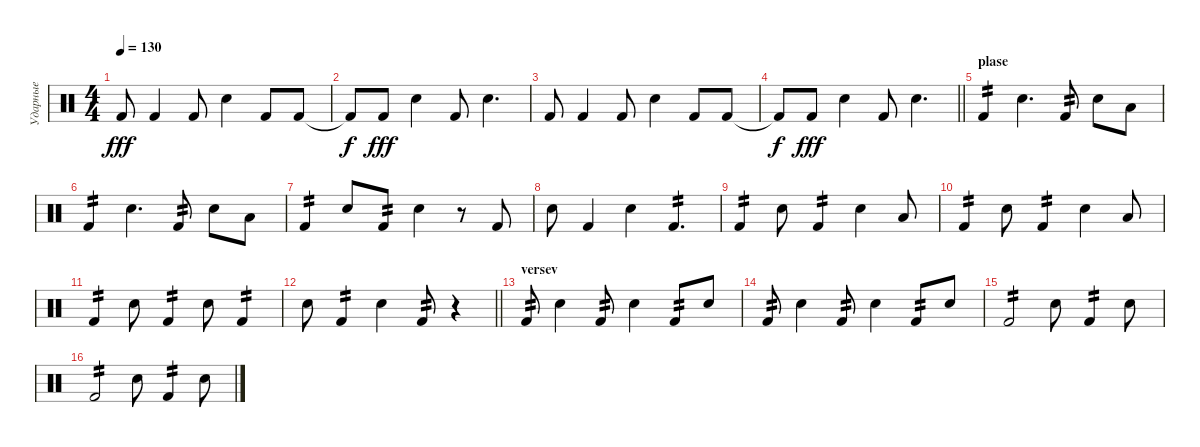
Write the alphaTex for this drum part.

\track ("Ударные" "Ударные") {instrument percussion}
\staff {score}
\articulation defaults
\ts (4 4)
\tempo 130
\clef neutral
\ks c "Kick (hit) 2".8{dy fff} "Kick (hit) 2".4 "Kick (hit) 2".8 "Snare (hit) 2".4 "Kick (hit) 2".8 "Kick (hit) 2".8
|
"Kick (hit) 2"{t}.8{dy f} "Kick (hit) 2".8{dy fff} "Snare (hit) 2".4 "Kick (hit) 2".8 "Snare (hit) 2".4{d} |
"Kick (hit) 2".8 "Kick (hit) 2".4 "Kick (hit) 2".8 "Snare (hit) 2".4 "Kick (hit) 2".8 "Kick (hit) 2".8 |
\barLineRight lightlight "Kick (hit) 2"{t}.8{dy f} "Kick (hit) 2".8{dy fff} "Snare (hit) 2".4 "Kick (hit) 2".8 "Snare (hit) 2".4{d}
|
\section ("" "plase")
"Kick (hit) 2".4{tp 2} "Snare (hit) 2".4{d} "Kick (hit) 2".8{tp 2} "Snare (hit) 2".8 "Low Floor Tom (hit)".8 |
"Kick (hit) 2".4{tp 2} "Snare (hit) 2".4{d} "Kick (hit) 2".8{tp 2} "Snare (hit) 2".8 "Low Tom (hit)".8 |
"Kick (hit) 2".4{tp 2} "Snare (hit) 2".8 "Kick (hit) 2".8{tp 2} "Snare (hit) 2".4 r.8 "Kick (hit) 2".8 |
"Snare (hit) 2".8 "Kick (hit) 2".4 "Snare (hit) 2".4 "Kick (hit) 2".4{d tp 2} |
"Kick (hit) 2".4{tp 2} "Snare (hit) 2".8 "Kick (hit) 2".4{tp 2} "Snare (hit) 2".4 "Low Floor Tom (hit)".8 |
"Kick (hit) 2".4{tp 2} "Snare (hit) 2".8 "Kick (hit) 2".4{tp 2} "Snare (hit) 2".4 "Low Tom (hit)".8 |
"Kick (hit) 2".4{tp 2} "Snare (hit) 2".8 "Kick (hit) 2".4{tp 2} "Snare (hit) 2".8 "Kick (hit) 2".4{tp 2} |
\barLineRight lightlight "Snare (hit) 2".8 "Kick (hit) 2".4{tp 2} "Snare (hit) 2".4 "Kick (hit) 2".8{tp 2}
r.4 |
\section ("" "versev")
"Kick (hit) 2".8{tp 2} "Snare (hit) 2".4 "Kick (hit) 2".8{tp 2} "Snare (hit) 2".4 "Kick (hit) 2".8{tp 2} "Snare (hit) 2".8 |
"Kick (hit) 2".8{tp 2} "Snare (hit) 2".4 "Kick (hit) 2".8{tp 2} "Snare (hit) 2".4 "Kick (hit) 2".8{tp 2} "Snare (hit) 2".8 |
"Kick (hit) 2".2{tp 2} "Snare (hit) 2".8 "Kick (hit) 2".4{tp 2} "Snare (hit) 2".8 |
"Kick (hit) 2".2{tp 2} "Snare (hit) 2".8 "Kick (hit) 2".4{tp 2} "Snare (hit) 2".8
